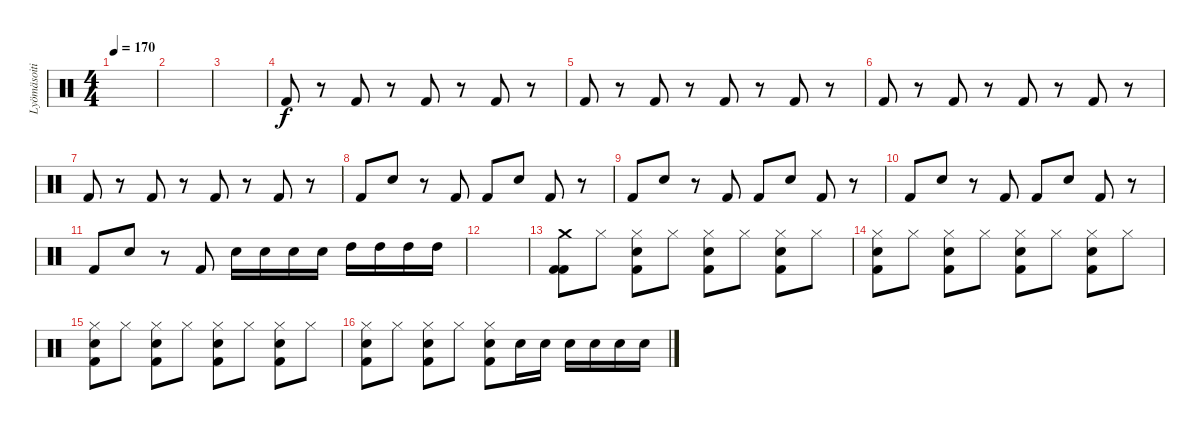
\track ("Lyömäsoitin" "Lyömäsoiti") {instrument percussion}
\staff {score}
\articulation defaults
\ts (4 4)
\tempo 170
\clef neutral
\ks c
|
|
|
"Kick (hit) 2".8 r.8 "Kick (hit) 2".8 r.8 "Kick (hit) 2".8 r.8 "Kick (hit) 2".8 r.8 |
"Kick (hit) 2".8 r.8 "Kick (hit) 2".8 r.8 "Kick (hit) 2".8 r.8 "Kick (hit) 2".8 r.8 |
"Kick (hit) 2".8 r.8 "Kick (hit) 2".8 r.8 "Kick (hit) 2".8 r.8 "Kick (hit) 2".8 r.8 |
"Kick (hit) 2".8 r.8 "Kick (hit) 2".8 r.8 "Kick (hit) 2".8 r.8 "Kick (hit) 2".8 r.8 |
"Kick (hit) 2".8 "Snare (hit) 2".8 r.8 "Kick (hit) 2".8 "Kick (hit) 2".8 "Snare (hit) 2".8 "Kick (hit) 2".8 r.8 |
"Kick (hit) 2".8 "Snare (hit) 2".8 r.8 "Kick (hit) 2".8 "Kick (hit) 2".8 "Snare (hit) 2".8 "Kick (hit) 2".8 r.8 |
"Kick (hit) 2".8 "Snare (hit) 2".8 r.8 "Kick (hit) 2".8 "Kick (hit) 2".8 "Snare (hit) 2".8 "Kick (hit) 2".8 r.8 |
"Kick (hit) 2".8 "Snare (hit) 2".8 r.8 "Kick (hit) 2".8 "Snare (hit) 2".16 "Snare (hit) 2".16 "Snare (hit) 2".16 "Snare (hit) 2".16 "High Tom (hit)".16 "High Tom (hit)".16 "High Tom (hit)".16 "High Tom (hit)".16 |
|
("Crash medium (hit)" "Kick (hit) 2" "Kick (hit) 2").8 "Hi-Hat (closed)".8 ("Hi-Hat (closed)" "Snare (hit) 2" "Kick (hit) 2").8 "Hi-Hat (closed)".8 ("Hi-Hat (closed)" "Snare (hit) 2" "Kick (hit) 2").8 "Hi-Hat (closed)".8 ("Hi-Hat (closed)" "Snare (hit) 2" "Kick (hit) 2").8 "Hi-Hat (closed)".8 |
("Hi-Hat (closed)" "Snare (hit) 2" "Kick (hit) 2").8 "Hi-Hat (closed)".8 ("Hi-Hat (closed)" "Snare (hit) 2" "Kick (hit) 2").8 "Hi-Hat (closed)".8 ("Hi-Hat (closed)" "Snare (hit) 2" "Kick (hit) 2").8 "Hi-Hat (closed)".8 ("Hi-Hat (closed)" "Snare (hit) 2" "Kick (hit) 2").8 "Hi-Hat (closed)".8 |
("Hi-Hat (closed)" "Snare (hit) 2" "Kick (hit) 2").8 "Hi-Hat (closed)".8 ("Hi-Hat (closed)" "Snare (hit) 2" "Kick (hit) 2").8 "Hi-Hat (closed)".8 ("Hi-Hat (closed)" "Snare (hit) 2" "Kick (hit) 2").8 "Hi-Hat (closed)".8 ("Hi-Hat (closed)" "Snare (hit) 2" "Kick (hit) 2").8 "Hi-Hat (closed)".8 |
("Hi-Hat (closed)" "Snare (hit) 2" "Kick (hit) 2").8 "Hi-Hat (closed)".8 ("Hi-Hat (closed)" "Snare (hit) 2" "Kick (hit) 2").8 "Hi-Hat (closed)".8 ("Hi-Hat (closed)" "Snare (hit) 2" "Kick (hit) 2").8 "Snare (hit) 2".16 "Snare (hit) 2".16 "Snare (hit) 2".16 "Snare (hit) 2".16 "Snare (hit) 2".16 "Snare (hit) 2".16
